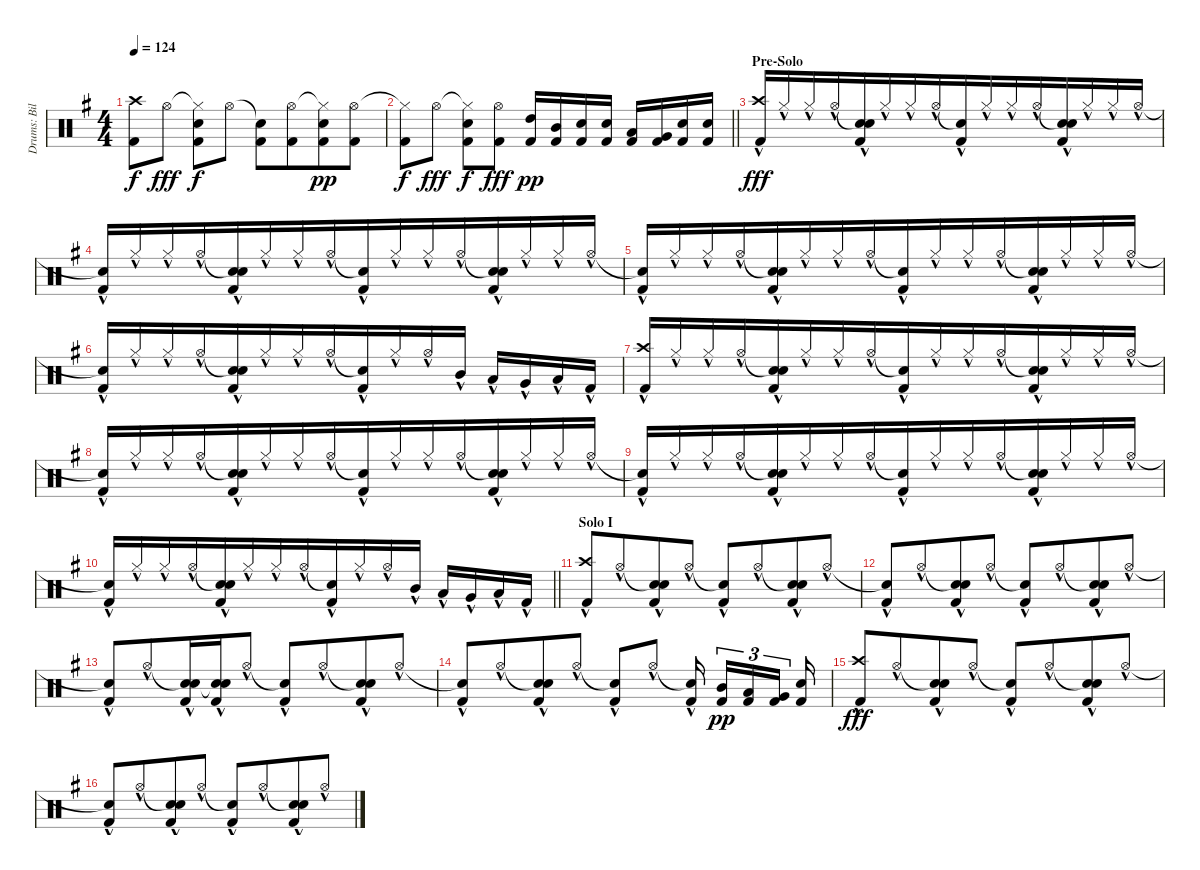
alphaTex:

\track ("Drums: Bill" "Drums: Bil") {instrument percussion}
\staff {score}
\articulation defaults
\ts (4 4)
\tempo 124
\clef neutral
\ks g
("Crash high (hit)" "Kick (hit) 2").8{dy f} "Hi-Hat (open)".8{dy fff} ("Hi-Hat (closed)"{t} "Electric Snare (hit)" "Kick (hit) 2").8{dy f} "Hi-Hat (open)".8 ("Snare (hit)"{t} "Kick (hit) 2").8 ("Hi-Hat (open)" "Kick (hit) 2").8{beam merge} ("Hi-Hat (closed)"{t} "Electric Snare (hit)" "Kick (hit) 2").8{dy pp} ("Hi-Hat (open)" "Kick (hit) 2").8 |
\barLineRight lightlight
("Hi-Hat (closed)"{t} "Kick (hit) 2").8{dy f} "Hi-Hat (open)".8{dy fff} ("Hi-Hat (closed)"{t} "Electric Snare (hit)" "Kick (hit) 2").8{dy f} ("Hi-Hat (open)" "Kick (hit) 2").8{dy fff} ("High Tom (hit)" "Kick (hit) 2").16{dy pp} ("Mid Tom (hit)" "Kick (hit) 2").16 ("Electric Snare (hit)" "Kick (hit) 2").16 ("Electric Snare (hit)" "Kick (hit) 2").16 ("Low Tom (hit)" "Kick (hit) 2").16 ("Very Low Tom (hit)" "Kick (hit) 2").16 ("Electric Snare (hit)" "Kick (hit) 2").16 ("Electric Snare (hit)" "Kick (hit) 2").16 |
\section ("" "Pre-Solo")
("Crash high (hit)"{hac} "Kick (hit) 2"{hac}).16{dy fff beam Up beam merge} "Hi-Hat (closed)"{hac}.16{beam Up beam merge} "Hi-Hat (closed)"{hac}.16{beam Up beam merge} "Hi-Hat (open)"{hac}.16{beam Up beam merge} ("Snare (hit)"{t} "Electric Snare (hit)"{hac} "Kick (hit) 2"{hac}).16{beam Up beam merge} "Hi-Hat (closed)"{hac}.16{beam Up beam merge} "Hi-Hat (closed)"{hac}.16{beam Up beam merge} "Hi-Hat (open)"{hac}.16{beam Up beam merge} ("Snare (hit)"{t} "Kick (hit) 2"{hac}).16{beam Up beam merge} "Hi-Hat (closed)"{hac}.16{beam Up beam merge} "Hi-Hat (closed)"{hac}.16{beam Up beam merge} "Hi-Hat (open)"{hac}.16{beam Up beam merge} ("Snare (hit)"{t} "Electric Snare (hit)"{hac} "Kick (hit) 2"{hac}).16{beam Up beam merge} "Hi-Hat (closed)"{hac}.16{beam Up beam merge} "Hi-Hat (closed)"{hac}.16{beam Up beam merge} "Hi-Hat (open)"{hac}.16{beam Up} |
("Snare (hit)"{t} "Kick (hit) 2"{hac}).16{beam Up beam merge} "Hi-Hat (closed)"{hac}.16{beam Up beam merge} "Hi-Hat (closed)"{hac}.16{beam Up beam merge} "Hi-Hat (open)"{hac}.16{beam Up beam merge} ("Snare (hit)"{t} "Electric Snare (hit)"{hac} "Kick (hit) 2"{hac}).16{beam Up beam merge} "Hi-Hat (closed)"{hac}.16{beam Up beam merge} "Hi-Hat (closed)"{hac}.16{beam Up beam merge} "Hi-Hat (open)"{hac}.16{beam Up beam merge} ("Snare (hit)"{t} "Kick (hit) 2"{hac}).16{beam Up beam merge} "Hi-Hat (closed)"{hac}.16{beam Up beam merge} "Hi-Hat (closed)"{hac}.16{beam Up beam merge} "Hi-Hat (open)"{hac}.16{beam Up beam merge} ("Snare (hit)"{t} "Electric Snare (hit)" "Kick (hit) 2"{hac}).16{beam Up beam merge} "Hi-Hat (closed)"{hac}.16{beam Up beam merge} "Hi-Hat (closed)"{hac}.16{beam Up beam merge} "Hi-Hat (open)"{hac}.16{beam Up} |
("Snare (hit)"{t} "Kick (hit) 2"{hac}).16{beam Up beam merge} "Hi-Hat (closed)"{hac}.16{beam Up beam merge} "Hi-Hat (closed)"{hac}.16{beam Up beam merge} "Hi-Hat (open)"{hac}.16{beam Up beam merge} ("Snare (hit)"{t} "Electric Snare (hit)"{hac} "Kick (hit) 2"{hac}).16{beam Up beam merge} "Hi-Hat (closed)"{hac}.16{beam Up beam merge} "Hi-Hat (closed)"{hac}.16{beam Up beam merge} "Hi-Hat (open)"{hac}.16{beam Up beam merge} ("Snare (hit)"{t} "Kick (hit) 2"{hac}).16{beam Up beam merge} "Hi-Hat (closed)"{hac}.16{beam Up beam merge} "Hi-Hat (closed)"{hac}.16{beam Up beam merge} "Hi-Hat (open)"{hac}.16{beam Up beam merge} ("Snare (hit)"{t} "Electric Snare (hit)" "Kick (hit) 2"{hac}).16{beam Up beam merge} "Hi-Hat (closed)"{hac}.16{beam Up beam merge} "Hi-Hat (closed)"{hac}.16{beam Up beam merge} "Hi-Hat (open)"{hac}.16{beam Up} |
("Snare (hit)"{t} "Kick (hit) 2"{hac}).16{beam Up beam merge} "Hi-Hat (closed)"{hac}.16{beam Up beam merge} "Hi-Hat (closed)"{hac}.16{beam Up beam merge} "Hi-Hat (open)"{hac}.16{beam Up beam merge} ("Snare (hit)"{t} "Electric Snare (hit)"{hac} "Kick (hit) 2"{hac}).16{beam Up beam merge} "Hi-Hat (closed)"{hac}.16{beam Up beam merge} "Hi-Hat (closed)"{hac}.16{beam Up beam merge} "Hi-Hat (open)"{hac}.16{beam Up beam merge} ("Snare (hit)"{t} "Kick (hit) 2"{hac}).16{beam Up beam merge} "Hi-Hat (closed)"{hac}.16{beam Up beam merge} "Hi-Hat (open)"{hac}.16{beam Up} "Mid Tom (hit)"{hac}.16 "Low Tom (hit)"{hac}.16 "Very Low Tom (hit)"{hac}.16 "Low Floor Tom (hit)"{hac}.16 "Kick (hit) 2"{hac}.16 |
("Crash high (hit)"{hac} "Kick (hit) 2"{hac}).16{beam Up beam merge} "Hi-Hat (closed)"{hac}.16{beam Up beam merge} "Hi-Hat (closed)"{hac}.16{beam Up beam merge} "Hi-Hat (open)"{hac}.16{beam Up beam merge} ("Snare (hit)"{t} "Electric Snare (hit)"{hac} "Kick (hit) 2"{hac}).16{beam Up beam merge} "Hi-Hat (closed)"{hac}.16{beam Up beam merge} "Hi-Hat (closed)"{hac}.16{beam Up beam merge} "Hi-Hat (open)"{hac}.16{beam Up beam merge} ("Snare (hit)"{t} "Kick (hit) 2"{hac}).16{beam Up beam merge} "Hi-Hat (closed)"{hac}.16{beam Up beam merge} "Hi-Hat (closed)"{hac}.16{beam Up beam merge} "Hi-Hat (open)"{hac}.16{beam Up beam merge} ("Snare (hit)"{t} "Electric Snare (hit)"{hac} "Kick (hit) 2"{hac}).16{beam Up beam merge} "Hi-Hat (closed)"{hac}.16{beam Up beam merge} "Hi-Hat (closed)"{hac}.16{beam Up beam merge} "Hi-Hat (open)"{hac}.16{beam Up} |
("Snare (hit)"{t} "Kick (hit) 2"{hac}).16{beam Up beam merge} "Hi-Hat (closed)"{hac}.16{beam Up beam merge} "Hi-Hat (closed)"{hac}.16{beam Up beam merge} "Hi-Hat (open)"{hac}.16{beam Up beam merge} ("Snare (hit)"{t} "Electric Snare (hit)"{hac} "Kick (hit) 2"{hac}).16{beam Up beam merge} "Hi-Hat (closed)"{hac}.16{beam Up beam merge} "Hi-Hat (closed)"{hac}.16{beam Up beam merge} "Hi-Hat (open)"{hac}.16{beam Up beam merge} ("Snare (hit)"{t} "Kick (hit) 2"{hac}).16{beam Up beam merge} "Hi-Hat (closed)"{hac}.16{beam Up beam merge} "Hi-Hat (closed)"{hac}.16{beam Up beam merge} "Hi-Hat (open)"{hac}.16{beam Up beam merge} ("Snare (hit)"{t} "Electric Snare (hit)" "Kick (hit) 2"{hac}).16{beam Up beam merge} "Hi-Hat (closed)"{hac}.16{beam Up beam merge} "Hi-Hat (closed)"{hac}.16{beam Up beam merge} "Hi-Hat (open)"{hac}.16{beam Up} |
("Snare (hit)"{t} "Kick (hit) 2"{hac}).16{beam Up beam merge} "Hi-Hat (closed)"{hac}.16{beam Up beam merge} "Hi-Hat (closed)"{hac}.16{beam Up beam merge} "Hi-Hat (open)"{hac}.16{beam Up beam merge} ("Snare (hit)"{t} "Electric Snare (hit)"{hac} "Kick (hit) 2"{hac}).16{beam Up beam merge} "Hi-Hat (closed)"{hac}.16{beam Up beam merge} "Hi-Hat (closed)"{hac}.16{beam Up beam merge} "Hi-Hat (open)"{hac}.16{beam Up beam merge} ("Snare (hit)"{t} "Kick (hit) 2"{hac}).16{beam Up beam merge} "Hi-Hat (closed)"{hac}.16{beam Up beam merge} "Hi-Hat (closed)"{hac}.16{beam Up beam merge} "Hi-Hat (open)"{hac}.16{beam Up beam merge} ("Snare (hit)"{t} "Electric Snare (hit)" "Kick (hit) 2"{hac}).16{beam Up beam merge} "Hi-Hat (closed)"{hac}.16{beam Up beam merge} "Hi-Hat (closed)"{hac}.16{beam Up beam merge} "Hi-Hat (open)"{hac}.16{beam Up} |
\barLineRight lightlight
("Snare (hit)"{t} "Kick (hit) 2"{hac}).16{beam Up beam merge} "Hi-Hat (closed)"{hac}.16{beam Up beam merge} "Hi-Hat (closed)"{hac}.16{beam Up beam merge} "Hi-Hat (open)"{hac}.16{beam Up beam merge} ("Snare (hit)"{t} "Electric Snare (hit)"{hac} "Kick (hit) 2"{hac}).16{beam Up beam merge} "Hi-Hat (closed)"{hac}.16{beam Up beam merge} "Hi-Hat (closed)"{hac}.16{beam Up beam merge} "Hi-Hat (open)"{hac}.16{beam Up beam merge} ("Snare (hit)"{t} "Kick (hit) 2"{hac}).16{beam Up beam merge} "Hi-Hat (closed)"{hac}.16{beam Up beam merge} "Hi-Hat (open)"{hac}.16{beam Up} "Mid Tom (hit)"{hac}.16 "Low Tom (hit)"{hac}.16 "Very Low Tom (hit)"{hac}.16 "Low Floor Tom (hit)"{hac}.16 "Kick (hit) 2"{hac}.16 |
\section ("" "Solo I")
("Crash high (hit)"{hac} "Kick (hit) 2"{hac}).8{beam Up beam merge} "Hi-Hat (open)"{hac}.8{beam Up beam merge} ("Snare (hit)"{t} "Electric Snare (hit)"{hac} "Kick (hit) 2"{hac}).8{beam Up beam merge} "Hi-Hat (open)"{hac}.8{beam Up} ("Snare (hit)"{t} "Kick (hit) 2"{hac}).8{beam Up beam merge} "Hi-Hat (open)"{hac}.8{beam Up beam merge} ("Snare (hit)"{t} "Electric Snare (hit)"{hac} "Kick (hit) 2"{hac}).8{beam Up beam merge} "Hi-Hat (open)"{hac}.8{beam Up} |
("Snare (hit)"{t} "Kick (hit) 2"{hac}).8{beam Up beam merge} "Hi-Hat (open)"{hac}.8{beam Up beam merge} ("Snare (hit)"{t} "Electric Snare (hit)"{hac} "Kick (hit) 2"{hac}).8{beam Up beam merge} "Hi-Hat (open)"{hac}.8{beam Up} ("Snare (hit)"{t} "Kick (hit) 2"{hac}).8{beam Up beam merge} "Hi-Hat (open)"{hac}.8{beam Up beam merge} ("Snare (hit)"{t} "Electric Snare (hit)"{hac} "Kick (hit) 2"{hac}).8{beam Up beam merge} "Hi-Hat (open)"{hac}.8{beam Up} |
("Snare (hit)"{t} "Kick (hit) 2"{hac}).8{beam Up beam merge} "Hi-Hat (open)"{hac}.8{beam Up beam merge} ("Snare (hit)"{t} "Electric Snare (hit)"{hac} "Kick (hit) 2"{hac}).16{beam Up beam merge} ("Snare (hit)"{t} "Electric Snare (hit)"{hac} "Kick (hit) 2"{hac}).16{beam Up beam merge} "Hi-Hat (open)"{hac}.8{beam Up} ("Snare (hit)"{t} "Kick (hit) 2"{hac}).8{beam Up beam merge} "Hi-Hat (open)"{hac}.8{beam Up beam merge} ("Snare (hit)"{t} "Electric Snare (hit)"{hac} "Kick (hit) 2"{hac}).8{beam Up beam merge} "Hi-Hat (open)"{hac}.8{beam Up} |
("Snare (hit)"{t} "Kick (hit) 2"{hac}).8{beam Up beam merge} "Hi-Hat (open)"{hac}.8{beam Up beam merge} ("Snare (hit)"{t} "Electric Snare (hit)"{hac} "Kick (hit) 2"{hac}).8{beam Up beam merge} "Hi-Hat (open)"{hac}.8{beam Up} ("Snare (hit)"{t} "Kick (hit) 2"{hac}).8{beam Up beam merge} "Hi-Hat (open)"{hac}.8{beam Up} ("Snare (hit)"{t} "Kick (hit) 2"{hac}).16{beam Up beam splitsecondary} ("Mid Tom (hit)" "Kick (hit) 2").16{tu (3 2) dy pp} ("Low Tom (hit)" "Kick (hit) 2").16{tu (3 2)} ("Very Low Tom (hit)" "Kick (hit) 2").16{tu (3 2) beam splitsecondary} ("Electric Snare (hit)" "Kick (hit) 2").16 |
("Crash high (hit)"{hac} "Kick (hit) 2"{hac}).8{dy fff beam Up beam merge} "Hi-Hat (open)"{hac}.8{beam Up beam merge} ("Snare (hit)"{t} "Electric Snare (hit)"{hac} "Kick (hit) 2"{hac}).8{beam Up beam merge} "Hi-Hat (open)"{hac}.8{beam Up} ("Snare (hit)"{t} "Kick (hit) 2"{hac}).8{beam Up beam merge} "Hi-Hat (open)"{hac}.8{beam Up beam merge} ("Snare (hit)"{t} "Electric Snare (hit)"{hac} "Kick (hit) 2"{hac}).8{beam Up beam merge} "Hi-Hat (open)"{hac}.8{beam Up} |
("Snare (hit)"{t} "Kick (hit) 2"{hac}).8{beam Up beam merge} "Hi-Hat (open)"{hac}.8{beam Up beam merge} ("Snare (hit)"{t} "Electric Snare (hit)"{hac} "Kick (hit) 2"{hac}).8{beam Up beam merge} "Hi-Hat (open)"{hac}.8{beam Up} ("Snare (hit)"{t} "Kick (hit) 2"{hac}).8{beam Up beam merge} "Hi-Hat (open)"{hac}.8{beam Up beam merge} ("Snare (hit)"{t} "Electric Snare (hit)"{hac} "Kick (hit) 2"{hac}).8{beam Up beam merge} "Hi-Hat (open)"{hac}.8{beam Up}
